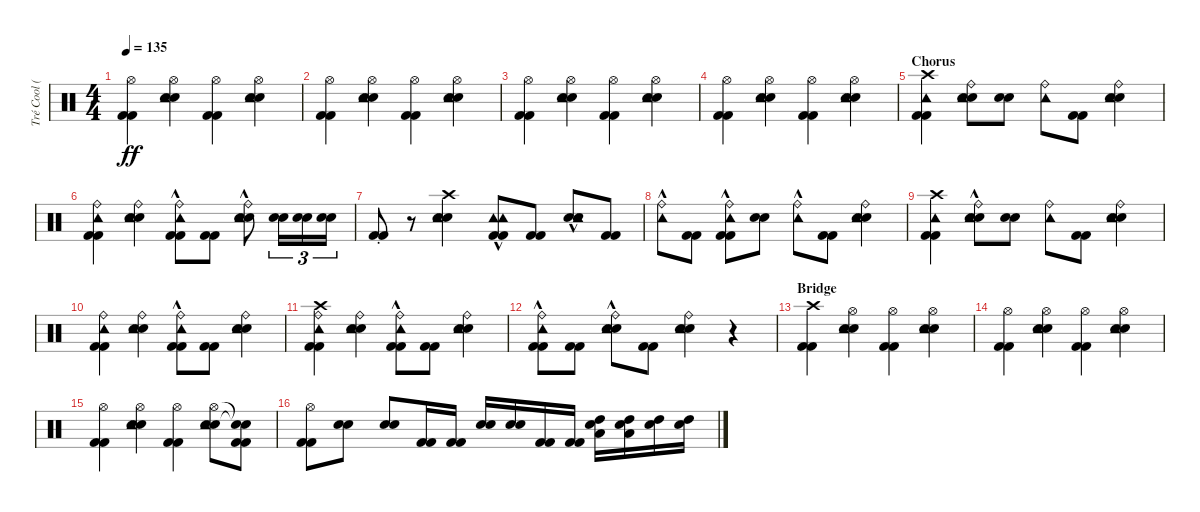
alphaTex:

\track ("Tré Cool (Drums)" "Tré Cool (") {instrument percussion}
\staff {score}
\articulation defaults
\ts (4 4)
\tempo 135
\clef neutral
\ks c
("Kick (hit) 2" "Kick (hit) 2" "Hi-Hat (open)").4{dy ff} ("Snare (hit) 2" "Snare (hit) 2" "Tambourine (hit)" "Hi-Hat (open)").4 ("Kick (hit) 2" "Kick (hit) 2" "Hi-Hat (open)").4 ("Snare (hit) 2" "Snare (hit) 2" "Tambourine (hit)" "Hi-Hat (open)").4 |
("Kick (hit) 2" "Kick (hit) 2" "Hi-Hat (open)").4 ("Snare (hit) 2" "Snare (hit) 2" "Tambourine (hit)" "Hi-Hat (open)").4 ("Kick (hit) 2" "Kick (hit) 2" "Hi-Hat (open)").4 ("Snare (hit) 2" "Snare (hit) 2" "Tambourine (hit)" "Hi-Hat (open)").4 |
("Kick (hit) 2" "Kick (hit) 2" "Hi-Hat (open)").4 ("Snare (hit) 2" "Snare (hit) 2" "Tambourine (hit)" "Hi-Hat (open)").4 ("Kick (hit) 2" "Kick (hit) 2" "Hi-Hat (open)").4 ("Snare (hit) 2" "Snare (hit) 2" "Tambourine (hit)" "Hi-Hat (open)").4 |
("Kick (hit) 2" "Kick (hit) 2" "Hi-Hat (open)").4 ("Snare (hit) 2" "Snare (hit) 2" "Tambourine (hit)" "Hi-Hat (open)").4 ("Kick (hit) 2" "Kick (hit) 2" "Hi-Hat (open)").4 ("Snare (hit) 2" "Snare (hit) 2" "Tambourine (hit)" "Hi-Hat (open)").4 |
\section ("" "Chorus")
("Kick (hit) 2" "Kick (hit) 2" "Tambourine (hit)" "Crash high (hit)").4 ("Snare (hit) 2" "Snare (hit) 2" "Ride (bell)" "Tambourine (hit)").8 ("Snare (hit) 2" "Snare (hit) 2").8 ("Ride (bell)" "Tambourine (hit)").8 ("Kick (hit) 2" "Kick (hit) 2").8 ("Snare (hit) 2" "Snare (hit) 2" "Ride (bell)" "Tambourine (hit)").4 |
("Kick (hit) 2" "Kick (hit) 2" "Ride (bell)" "Tambourine (hit)").4 ("Snare (hit) 2" "Snare (hit) 2" "Ride (bell)" "Tambourine (hit)").4 ("Kick (hit) 2" "Kick (hit) 2" "Ride (bell)"{hac} "Tambourine (hit)"{hac}).8 ("Kick (hit) 2" "Kick (hit) 2").8 ("Snare (hit) 2"{hac} "Snare (hit) 2"{hac} "Ride (bell)" "Tambourine (hit)").8 ("Snare (hit) 2" "Snare (hit) 2").16{tu (3 2)} ("Snare (hit) 2" "Snare (hit) 2").16{tu (3 2)} ("Snare (hit) 2" "Snare (hit) 2").16{tu (3 2)} |
("Kick (hit) 2"{st} "Kick (hit) 2"{st}).8 r.8 ("Snare (hit) 2" "Snare (hit) 2" "Tambourine (hit)" "Crash high (hit)").4 ("Kick (hit) 2" "Kick (hit) 2" "Tambourine (hit)"{hac} "Tambourine (hit)"{hac}).8 ("Kick (hit) 2" "Kick (hit) 2").8 ("Snare (hit) 2" "Snare (hit) 2" "Tambourine (hit)"{hac} "Tambourine (hit)"{hac}).8 ("Kick (hit) 2" "Kick (hit) 2").8 |
("Ride (bell)"{hac} "Tambourine (hit)"{hac}).8 ("Kick (hit) 2" "Kick (hit) 2").8 ("Kick (hit) 2" "Kick (hit) 2" "Ride (bell)"{hac} "Tambourine (hit)"{hac}).8 ("Snare (hit) 2" "Snare (hit) 2").8 ("Ride (bell)"{hac} "Tambourine (hit)"{hac}).8 ("Kick (hit) 2" "Kick (hit) 2").8 ("Snare (hit) 2" "Snare (hit) 2" "Ride (bell)" "Tambourine (hit)").4 |
("Kick (hit) 2" "Kick (hit) 2" "Crash high (hit)" "Tambourine (hit)").4 ("Snare (hit) 2" "Snare (hit) 2" "Ride (bell)"{hac} "Tambourine (hit)"{hac}).8 ("Snare (hit) 2" "Snare (hit) 2").8 ("Ride (bell)" "Tambourine (hit)").8 ("Kick (hit) 2" "Kick (hit) 2").8 ("Snare (hit) 2" "Snare (hit) 2" "Ride (bell)" "Tambourine (hit)").4 |
("Kick (hit) 2" "Kick (hit) 2" "Ride (bell)" "Tambourine (hit)").4 ("Snare (hit) 2" "Snare (hit) 2" "Ride (bell)" "Tambourine (hit)").4 ("Kick (hit) 2" "Kick (hit) 2" "Ride (bell)"{hac} "Tambourine (hit)"{hac}).8 ("Kick (hit) 2" "Kick (hit) 2").8 ("Snare (hit) 2" "Snare (hit) 2" "Ride (bell)" "Tambourine (hit)").4 |
("Kick (hit) 2" "Kick (hit) 2" "Ride (bell)" "Tambourine (hit)" "Crash high (hit)").4 ("Snare (hit) 2" "Snare (hit) 2" "Ride (bell)" "Tambourine (hit)").4 ("Kick (hit) 2" "Kick (hit) 2" "Ride (bell)"{hac} "Tambourine (hit)"{hac}).8 ("Kick (hit) 2" "Kick (hit) 2").8 ("Snare (hit) 2" "Snare (hit) 2" "Ride (bell)" "Tambourine (hit)").4 |
("Kick (hit) 2" "Kick (hit) 2" "Ride (bell)"{hac} "Tambourine (hit)"{hac}).8 ("Kick (hit) 2" "Kick (hit) 2").8 ("Snare (hit) 2" "Snare (hit) 2" "Ride (bell)" "Tambourine (hit)"{hac}).8 ("Kick (hit) 2" "Kick (hit) 2").8 ("Snare (hit) 2" "Snare (hit) 2" "Ride (bell)" "Tambourine (hit)").4 r.4 |
\section ("" "Bridge")
("Kick (hit) 2" "Kick (hit) 2" "Crash high (hit)").4 ("Snare (hit) 2" "Snare (hit) 2" "Tambourine (hit)" "Hi-Hat (open)").4 ("Kick (hit) 2" "Kick (hit) 2" "Hi-Hat (open)").4 ("Snare (hit) 2" "Snare (hit) 2" "Tambourine (hit)" "Hi-Hat (open)").4 |
("Kick (hit) 2" "Kick (hit) 2" "Hi-Hat (open)").4 ("Snare (hit) 2" "Snare (hit) 2" "Tambourine (hit)" "Hi-Hat (open)").4 ("Kick (hit) 2" "Kick (hit) 2" "Hi-Hat (open)").4 ("Snare (hit) 2" "Snare (hit) 2" "Tambourine (hit)" "Hi-Hat (open)").4 |
("Kick (hit) 2" "Kick (hit) 2" "Hi-Hat (open)").4 ("Snare (hit) 2" "Snare (hit) 2" "Tambourine (hit)" "Hi-Hat (open)").4 ("Kick (hit) 2" "Kick (hit) 2" "Hi-Hat (open)").4 ("Snare (hit) 2" "Snare (hit) 2" "Tambourine (hit)" "Hi-Hat (open)").8 ("Kick (hit) 2" "Kick (hit) 2" "Snare (hit)"{t} "Snare (hit)"{t}).8 |
("Kick (hit) 2" "Kick (hit) 2" "Hi-Hat (open)").8 ("Snare (hit) 2" "Snare (hit) 2").8 ("Snare (hit) 2" "Snare (hit) 2").8 ("Kick (hit) 2" "Kick (hit) 2").16 ("Kick (hit) 2" "Kick (hit) 2").16 ("Snare (hit) 2" "Snare (hit) 2").16 ("Snare (hit) 2" "Snare (hit) 2").16 ("Kick (hit) 2" "Kick (hit) 2").16 ("Kick (hit) 2" "Kick (hit) 2").16 ("Snare (hit) 2" "High Tom (hit)" "Low Floor Tom (hit)").16 ("Snare (hit) 2" "High Tom (hit)" "Low Floor Tom (hit)").16 ("Snare (hit) 2" "High Tom (hit)").16 ("Snare (hit) 2" "High Tom (hit)").16
